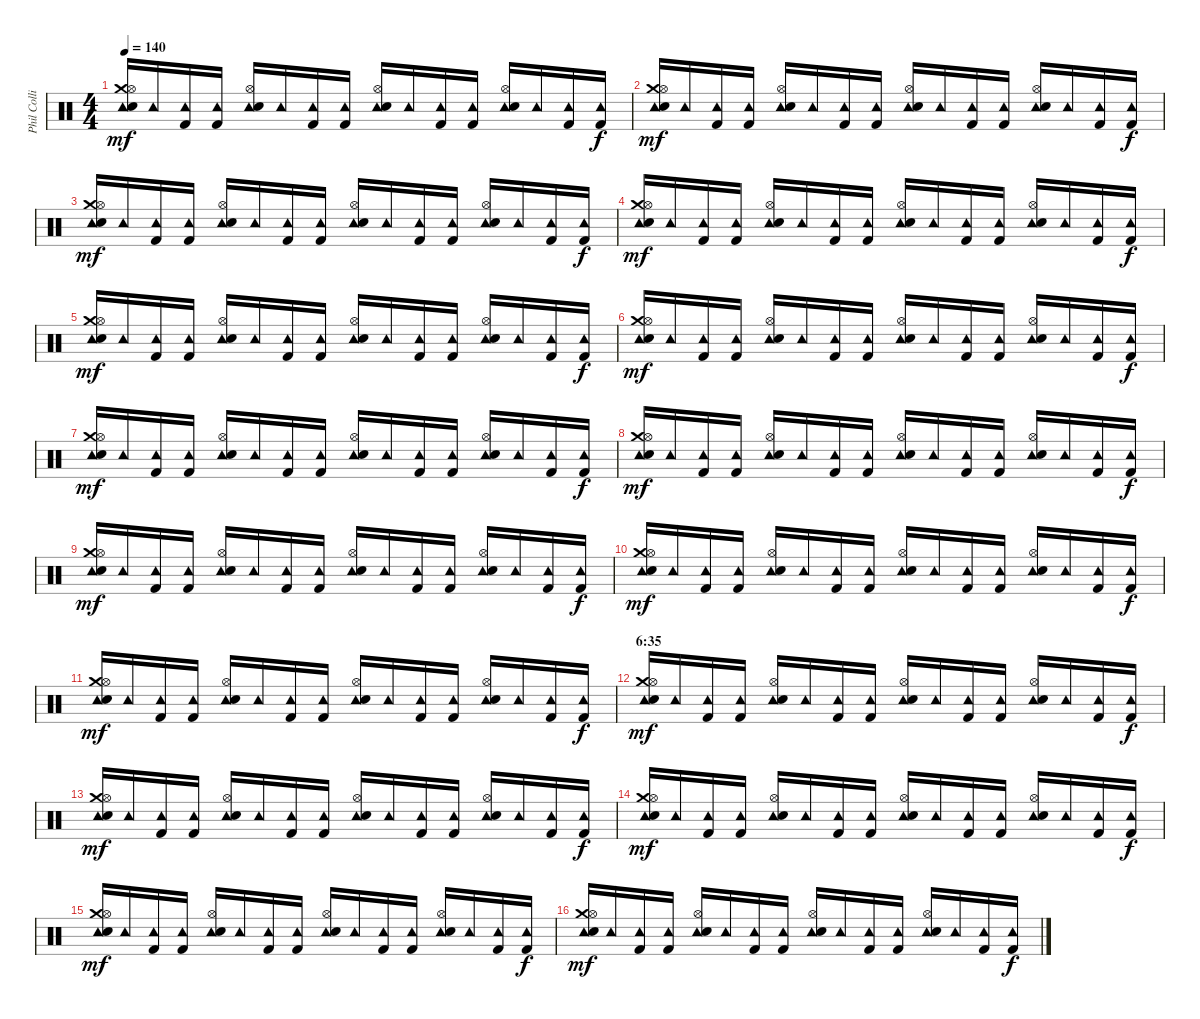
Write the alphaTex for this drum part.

\track ("Phil Collins (drums)" "Phil Colli") {instrument percussion}
\staff {score}
\articulation defaults
\ts (4 4)
\tempo 140
\clef neutral
\ks c
("Tambourine (hit)" "Crash medium (hit)" "Hi-Hat (open)" "Electric Snare (hit)").16{dy mf} "Tambourine (hit)".16 ("Tambourine (hit)" "Kick (hit) 2").16 ("Tambourine (hit)" "Kick (hit) 2").16 ("Tambourine (hit)" "Hi-Hat (open)" "Electric Snare (hit)").16 "Tambourine (hit)".16 ("Tambourine (hit)" "Kick (hit) 2").16 ("Tambourine (hit)" "Kick (hit) 2").16 ("Tambourine (hit)" "Hi-Hat (open)" "Electric Snare (hit)").16 "Tambourine (hit)".16 ("Tambourine (hit)" "Kick (hit) 2").16 ("Tambourine (hit)" "Kick (hit) 2").16 ("Tambourine (hit)" "Hi-Hat (open)" "Electric Snare (hit)").16 "Tambourine (hit)".16 ("Tambourine (hit)" "Kick (hit) 2").16 ("Tambourine (hit)" "Kick (hit) 2").16{dy f} |
("Tambourine (hit)" "Crash medium (hit)" "Hi-Hat (open)" "Electric Snare (hit)").16{dy mf} "Tambourine (hit)".16 ("Tambourine (hit)" "Kick (hit) 2").16 ("Tambourine (hit)" "Kick (hit) 2").16 ("Tambourine (hit)" "Hi-Hat (open)" "Electric Snare (hit)").16 "Tambourine (hit)".16 ("Tambourine (hit)" "Kick (hit) 2").16 ("Tambourine (hit)" "Kick (hit) 2").16 ("Tambourine (hit)" "Hi-Hat (open)" "Electric Snare (hit)").16 "Tambourine (hit)".16 ("Tambourine (hit)" "Kick (hit) 2").16 ("Tambourine (hit)" "Kick (hit) 2").16 ("Tambourine (hit)" "Hi-Hat (open)" "Electric Snare (hit)").16 "Tambourine (hit)".16 ("Tambourine (hit)" "Kick (hit) 2").16 ("Tambourine (hit)" "Kick (hit) 2").16{dy f} |
("Tambourine (hit)" "Crash medium (hit)" "Hi-Hat (open)" "Electric Snare (hit)").16{dy mf} "Tambourine (hit)".16 ("Tambourine (hit)" "Kick (hit) 2").16 ("Tambourine (hit)" "Kick (hit) 2").16 ("Tambourine (hit)" "Hi-Hat (open)" "Electric Snare (hit)").16 "Tambourine (hit)".16 ("Tambourine (hit)" "Kick (hit) 2").16 ("Tambourine (hit)" "Kick (hit) 2").16 ("Tambourine (hit)" "Hi-Hat (open)" "Electric Snare (hit)").16 "Tambourine (hit)".16 ("Tambourine (hit)" "Kick (hit) 2").16 ("Tambourine (hit)" "Kick (hit) 2").16 ("Tambourine (hit)" "Hi-Hat (open)" "Electric Snare (hit)").16 "Tambourine (hit)".16 ("Tambourine (hit)" "Kick (hit) 2").16 ("Tambourine (hit)" "Kick (hit) 2").16{dy f} |
("Tambourine (hit)" "Crash medium (hit)" "Hi-Hat (open)" "Electric Snare (hit)").16{dy mf} "Tambourine (hit)".16 ("Tambourine (hit)" "Kick (hit) 2").16 ("Tambourine (hit)" "Kick (hit) 2").16 ("Tambourine (hit)" "Hi-Hat (open)" "Electric Snare (hit)").16 "Tambourine (hit)".16 ("Tambourine (hit)" "Kick (hit) 2").16 ("Tambourine (hit)" "Kick (hit) 2").16 ("Tambourine (hit)" "Hi-Hat (open)" "Electric Snare (hit)").16 "Tambourine (hit)".16 ("Tambourine (hit)" "Kick (hit) 2").16 ("Tambourine (hit)" "Kick (hit) 2").16 ("Tambourine (hit)" "Hi-Hat (open)" "Electric Snare (hit)").16 "Tambourine (hit)".16 ("Tambourine (hit)" "Kick (hit) 2").16 ("Tambourine (hit)" "Kick (hit) 2").16{dy f} |
("Tambourine (hit)" "Crash medium (hit)" "Hi-Hat (open)" "Electric Snare (hit)").16{dy mf} "Tambourine (hit)".16 ("Tambourine (hit)" "Kick (hit) 2").16 ("Tambourine (hit)" "Kick (hit) 2").16 ("Tambourine (hit)" "Hi-Hat (open)" "Electric Snare (hit)").16 "Tambourine (hit)".16 ("Tambourine (hit)" "Kick (hit) 2").16 ("Tambourine (hit)" "Kick (hit) 2").16 ("Tambourine (hit)" "Hi-Hat (open)" "Electric Snare (hit)").16 "Tambourine (hit)".16 ("Tambourine (hit)" "Kick (hit) 2").16 ("Tambourine (hit)" "Kick (hit) 2").16 ("Tambourine (hit)" "Hi-Hat (open)" "Electric Snare (hit)").16 "Tambourine (hit)".16 ("Tambourine (hit)" "Kick (hit) 2").16 ("Tambourine (hit)" "Kick (hit) 2").16{dy f} |
("Tambourine (hit)" "Crash medium (hit)" "Hi-Hat (open)" "Electric Snare (hit)").16{dy mf} "Tambourine (hit)".16 ("Tambourine (hit)" "Kick (hit) 2").16 ("Tambourine (hit)" "Kick (hit) 2").16 ("Tambourine (hit)" "Hi-Hat (open)" "Electric Snare (hit)").16 "Tambourine (hit)".16 ("Tambourine (hit)" "Kick (hit) 2").16 ("Tambourine (hit)" "Kick (hit) 2").16 ("Tambourine (hit)" "Hi-Hat (open)" "Electric Snare (hit)").16 "Tambourine (hit)".16 ("Tambourine (hit)" "Kick (hit) 2").16 ("Tambourine (hit)" "Kick (hit) 2").16 ("Tambourine (hit)" "Hi-Hat (open)" "Electric Snare (hit)").16 "Tambourine (hit)".16 ("Tambourine (hit)" "Kick (hit) 2").16 ("Tambourine (hit)" "Kick (hit) 2").16{dy f} |
("Tambourine (hit)" "Crash medium (hit)" "Hi-Hat (open)" "Electric Snare (hit)").16{dy mf} "Tambourine (hit)".16 ("Tambourine (hit)" "Kick (hit) 2").16 ("Tambourine (hit)" "Kick (hit) 2").16 ("Tambourine (hit)" "Hi-Hat (open)" "Electric Snare (hit)").16 "Tambourine (hit)".16 ("Tambourine (hit)" "Kick (hit) 2").16 ("Tambourine (hit)" "Kick (hit) 2").16 ("Tambourine (hit)" "Hi-Hat (open)" "Electric Snare (hit)").16 "Tambourine (hit)".16 ("Tambourine (hit)" "Kick (hit) 2").16 ("Tambourine (hit)" "Kick (hit) 2").16 ("Tambourine (hit)" "Hi-Hat (open)" "Electric Snare (hit)").16 "Tambourine (hit)".16 ("Tambourine (hit)" "Kick (hit) 2").16 ("Tambourine (hit)" "Kick (hit) 2").16{dy f} |
("Tambourine (hit)" "Crash medium (hit)" "Hi-Hat (open)" "Electric Snare (hit)").16{dy mf} "Tambourine (hit)".16 ("Tambourine (hit)" "Kick (hit) 2").16 ("Tambourine (hit)" "Kick (hit) 2").16 ("Tambourine (hit)" "Hi-Hat (open)" "Electric Snare (hit)").16 "Tambourine (hit)".16 ("Tambourine (hit)" "Kick (hit) 2").16 ("Tambourine (hit)" "Kick (hit) 2").16 ("Tambourine (hit)" "Hi-Hat (open)" "Electric Snare (hit)").16 "Tambourine (hit)".16 ("Tambourine (hit)" "Kick (hit) 2").16 ("Tambourine (hit)" "Kick (hit) 2").16 ("Tambourine (hit)" "Hi-Hat (open)" "Electric Snare (hit)").16 "Tambourine (hit)".16 ("Tambourine (hit)" "Kick (hit) 2").16 ("Tambourine (hit)" "Kick (hit) 2").16{dy f} |
("Tambourine (hit)" "Crash medium (hit)" "Hi-Hat (open)" "Electric Snare (hit)").16{dy mf} "Tambourine (hit)".16 ("Tambourine (hit)" "Kick (hit) 2").16 ("Tambourine (hit)" "Kick (hit) 2").16 ("Tambourine (hit)" "Hi-Hat (open)" "Electric Snare (hit)").16 "Tambourine (hit)".16 ("Tambourine (hit)" "Kick (hit) 2").16 ("Tambourine (hit)" "Kick (hit) 2").16 ("Tambourine (hit)" "Hi-Hat (open)" "Electric Snare (hit)").16 "Tambourine (hit)".16 ("Tambourine (hit)" "Kick (hit) 2").16 ("Tambourine (hit)" "Kick (hit) 2").16 ("Tambourine (hit)" "Hi-Hat (open)" "Electric Snare (hit)").16 "Tambourine (hit)".16 ("Tambourine (hit)" "Kick (hit) 2").16 ("Tambourine (hit)" "Kick (hit) 2").16{dy f} |
("Tambourine (hit)" "Crash medium (hit)" "Hi-Hat (open)" "Electric Snare (hit)").16{dy mf} "Tambourine (hit)".16 ("Tambourine (hit)" "Kick (hit) 2").16 ("Tambourine (hit)" "Kick (hit) 2").16 ("Tambourine (hit)" "Hi-Hat (open)" "Electric Snare (hit)").16 "Tambourine (hit)".16 ("Tambourine (hit)" "Kick (hit) 2").16 ("Tambourine (hit)" "Kick (hit) 2").16 ("Tambourine (hit)" "Hi-Hat (open)" "Electric Snare (hit)").16 "Tambourine (hit)".16 ("Tambourine (hit)" "Kick (hit) 2").16 ("Tambourine (hit)" "Kick (hit) 2").16 ("Tambourine (hit)" "Hi-Hat (open)" "Electric Snare (hit)").16 "Tambourine (hit)".16 ("Tambourine (hit)" "Kick (hit) 2").16 ("Tambourine (hit)" "Kick (hit) 2").16{dy f} |
("Tambourine (hit)" "Crash medium (hit)" "Hi-Hat (open)" "Electric Snare (hit)").16{dy mf} "Tambourine (hit)".16 ("Tambourine (hit)" "Kick (hit) 2").16 ("Tambourine (hit)" "Kick (hit) 2").16 ("Tambourine (hit)" "Hi-Hat (open)" "Electric Snare (hit)").16 "Tambourine (hit)".16 ("Tambourine (hit)" "Kick (hit) 2").16 ("Tambourine (hit)" "Kick (hit) 2").16 ("Tambourine (hit)" "Hi-Hat (open)" "Electric Snare (hit)").16 "Tambourine (hit)".16 ("Tambourine (hit)" "Kick (hit) 2").16 ("Tambourine (hit)" "Kick (hit) 2").16 ("Tambourine (hit)" "Hi-Hat (open)" "Electric Snare (hit)").16 "Tambourine (hit)".16 ("Tambourine (hit)" "Kick (hit) 2").16 ("Tambourine (hit)" "Kick (hit) 2").16{dy f} |
\section ("" "6:35")
("Tambourine (hit)" "Crash medium (hit)" "Hi-Hat (open)" "Electric Snare (hit)").16{dy mf} "Tambourine (hit)".16 ("Tambourine (hit)" "Kick (hit) 2").16 ("Tambourine (hit)" "Kick (hit) 2").16 ("Tambourine (hit)" "Hi-Hat (open)" "Electric Snare (hit)").16 "Tambourine (hit)".16 ("Tambourine (hit)" "Kick (hit) 2").16 ("Tambourine (hit)" "Kick (hit) 2").16 ("Tambourine (hit)" "Hi-Hat (open)" "Electric Snare (hit)").16 "Tambourine (hit)".16 ("Tambourine (hit)" "Kick (hit) 2").16 ("Tambourine (hit)" "Kick (hit) 2").16 ("Tambourine (hit)" "Hi-Hat (open)" "Electric Snare (hit)").16 "Tambourine (hit)".16 ("Tambourine (hit)" "Kick (hit) 2").16 ("Tambourine (hit)" "Kick (hit) 2").16{dy f} |
("Tambourine (hit)" "Crash medium (hit)" "Hi-Hat (open)" "Electric Snare (hit)").16{dy mf} "Tambourine (hit)".16 ("Tambourine (hit)" "Kick (hit) 2").16 ("Tambourine (hit)" "Kick (hit) 2").16 ("Tambourine (hit)" "Hi-Hat (open)" "Electric Snare (hit)").16 "Tambourine (hit)".16 ("Tambourine (hit)" "Kick (hit) 2").16 ("Tambourine (hit)" "Kick (hit) 2").16 ("Tambourine (hit)" "Hi-Hat (open)" "Electric Snare (hit)").16 "Tambourine (hit)".16 ("Tambourine (hit)" "Kick (hit) 2").16 ("Tambourine (hit)" "Kick (hit) 2").16 ("Tambourine (hit)" "Hi-Hat (open)" "Electric Snare (hit)").16 "Tambourine (hit)".16 ("Tambourine (hit)" "Kick (hit) 2").16 ("Tambourine (hit)" "Kick (hit) 2").16{dy f} |
("Tambourine (hit)" "Crash medium (hit)" "Hi-Hat (open)" "Electric Snare (hit)").16{dy mf} "Tambourine (hit)".16 ("Tambourine (hit)" "Kick (hit) 2").16 ("Tambourine (hit)" "Kick (hit) 2").16 ("Tambourine (hit)" "Hi-Hat (open)" "Electric Snare (hit)").16 "Tambourine (hit)".16 ("Tambourine (hit)" "Kick (hit) 2").16 ("Tambourine (hit)" "Kick (hit) 2").16 ("Tambourine (hit)" "Hi-Hat (open)" "Electric Snare (hit)").16 "Tambourine (hit)".16 ("Tambourine (hit)" "Kick (hit) 2").16 ("Tambourine (hit)" "Kick (hit) 2").16 ("Tambourine (hit)" "Hi-Hat (open)" "Electric Snare (hit)").16 "Tambourine (hit)".16 ("Tambourine (hit)" "Kick (hit) 2").16 ("Tambourine (hit)" "Kick (hit) 2").16{dy f} |
("Tambourine (hit)" "Crash medium (hit)" "Hi-Hat (open)" "Electric Snare (hit)").16{dy mf} "Tambourine (hit)".16 ("Tambourine (hit)" "Kick (hit) 2").16 ("Tambourine (hit)" "Kick (hit) 2").16 ("Tambourine (hit)" "Hi-Hat (open)" "Electric Snare (hit)").16 "Tambourine (hit)".16 ("Tambourine (hit)" "Kick (hit) 2").16 ("Tambourine (hit)" "Kick (hit) 2").16 ("Tambourine (hit)" "Hi-Hat (open)" "Electric Snare (hit)").16 "Tambourine (hit)".16 ("Tambourine (hit)" "Kick (hit) 2").16 ("Tambourine (hit)" "Kick (hit) 2").16 ("Tambourine (hit)" "Hi-Hat (open)" "Electric Snare (hit)").16 "Tambourine (hit)".16 ("Tambourine (hit)" "Kick (hit) 2").16 ("Tambourine (hit)" "Kick (hit) 2").16{dy f} |
("Tambourine (hit)" "Crash medium (hit)" "Hi-Hat (open)" "Electric Snare (hit)").16{dy mf} "Tambourine (hit)".16 ("Tambourine (hit)" "Kick (hit) 2").16 ("Tambourine (hit)" "Kick (hit) 2").16 ("Tambourine (hit)" "Hi-Hat (open)" "Electric Snare (hit)").16 "Tambourine (hit)".16 ("Tambourine (hit)" "Kick (hit) 2").16 ("Tambourine (hit)" "Kick (hit) 2").16 ("Tambourine (hit)" "Hi-Hat (open)" "Electric Snare (hit)").16 "Tambourine (hit)".16 ("Tambourine (hit)" "Kick (hit) 2").16 ("Tambourine (hit)" "Kick (hit) 2").16 ("Tambourine (hit)" "Hi-Hat (open)" "Electric Snare (hit)").16 "Tambourine (hit)".16 ("Tambourine (hit)" "Kick (hit) 2").16 ("Tambourine (hit)" "Kick (hit) 2").16{dy f}
